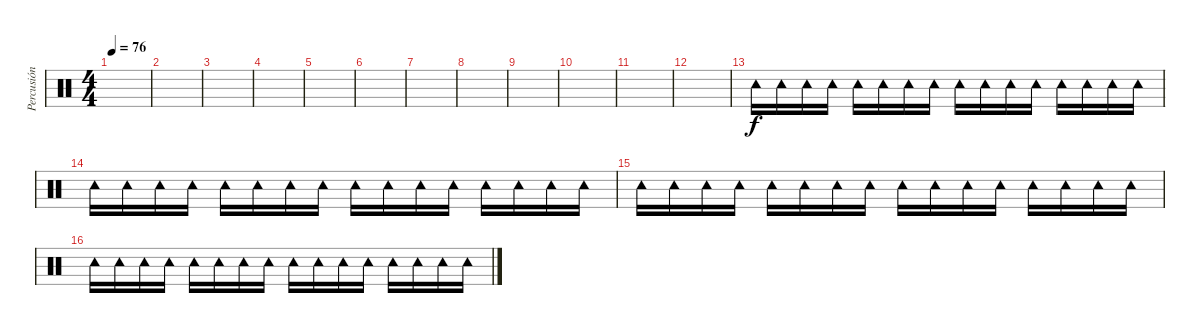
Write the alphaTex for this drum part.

\track ("Percusión" "Percusión") {instrument percussion}
\staff {score}
\articulation defaults
\ts (4 4)
\tempo 76
\clef neutral
\ks c
|
|
|
|
|
|
|
|
|
|
|
|
"Tambourine (hit)".16 "Tambourine (hit)".16 "Tambourine (hit)".16 "Tambourine (hit)".16 "Tambourine (hit)".16 "Tambourine (hit)".16 "Tambourine (hit)".16 "Tambourine (hit)".16 "Tambourine (hit)".16 "Tambourine (hit)".16 "Tambourine (hit)".16 "Tambourine (hit)".16 "Tambourine (hit)".16 "Tambourine (hit)".16 "Tambourine (hit)".16 "Tambourine (hit)".16 |
"Tambourine (hit)".16 "Tambourine (hit)".16 "Tambourine (hit)".16 "Tambourine (hit)".16 "Tambourine (hit)".16 "Tambourine (hit)".16 "Tambourine (hit)".16 "Tambourine (hit)".16 "Tambourine (hit)".16 "Tambourine (hit)".16 "Tambourine (hit)".16 "Tambourine (hit)".16 "Tambourine (hit)".16 "Tambourine (hit)".16 "Tambourine (hit)".16 "Tambourine (hit)".16 |
"Tambourine (hit)".16 "Tambourine (hit)".16 "Tambourine (hit)".16 "Tambourine (hit)".16 "Tambourine (hit)".16 "Tambourine (hit)".16 "Tambourine (hit)".16 "Tambourine (hit)".16 "Tambourine (hit)".16 "Tambourine (hit)".16 "Tambourine (hit)".16 "Tambourine (hit)".16 "Tambourine (hit)".16 "Tambourine (hit)".16 "Tambourine (hit)".16 "Tambourine (hit)".16 |
"Tambourine (hit)".16 "Tambourine (hit)".16 "Tambourine (hit)".16 "Tambourine (hit)".16 "Tambourine (hit)".16 "Tambourine (hit)".16 "Tambourine (hit)".16 "Tambourine (hit)".16 "Tambourine (hit)".16 "Tambourine (hit)".16 "Tambourine (hit)".16 "Tambourine (hit)".16 "Tambourine (hit)".16 "Tambourine (hit)".16 "Tambourine (hit)".16 "Tambourine (hit)".16
